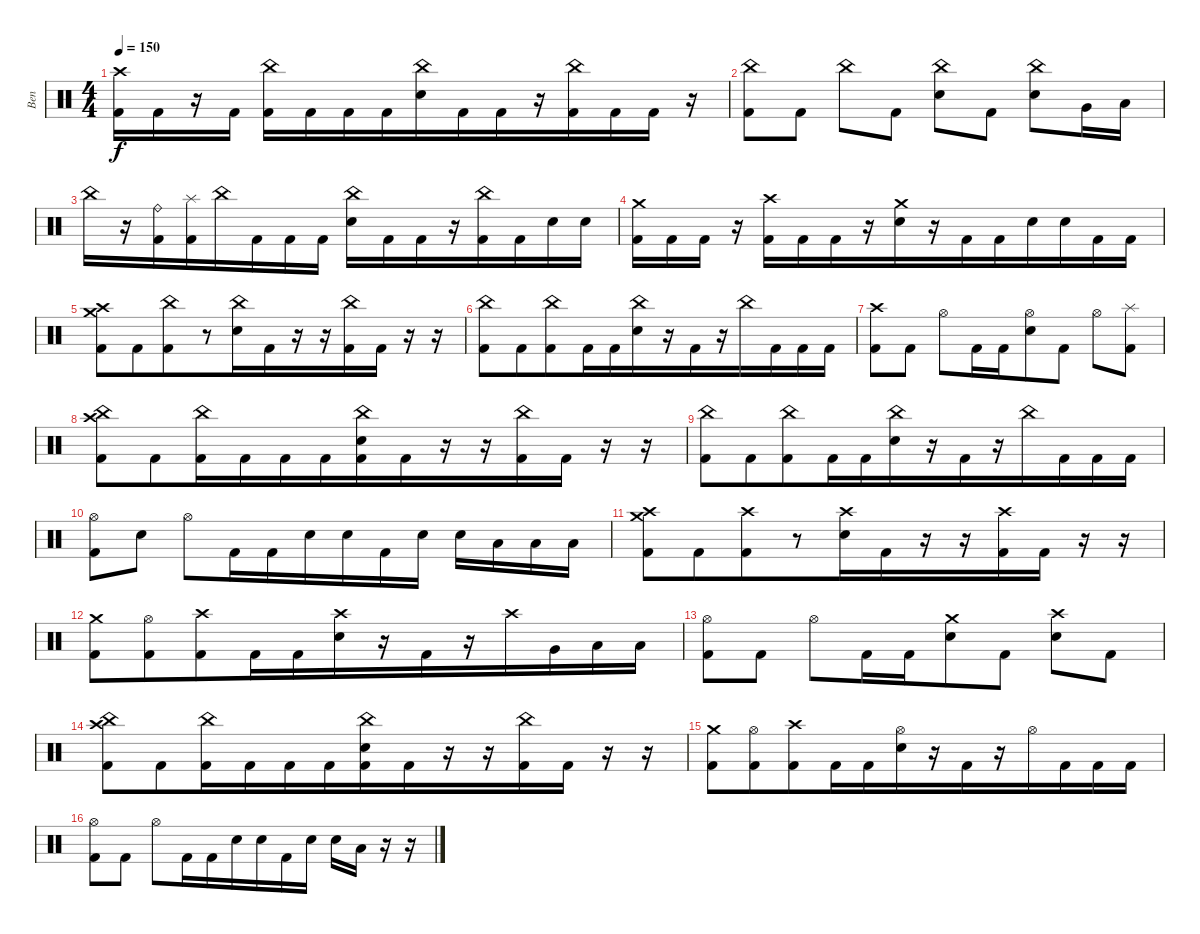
\track ("Ben" "Ben") {instrument percussion}
\staff {score}
\articulation defaults
\ts (4 4)
\tempo 150
\clef neutral
\ks c
("Crash high (hit)" "Kick (hit) 2").16{dy f} "Kick (hit) 2".16 r.16 "Kick (hit) 2".16 ("China (hit)" "Kick (hit) 2").16 "Kick (hit) 2".16{beam merge} "Kick (hit) 2".16 "Kick (hit) 2".16{beam merge} ("China (hit)" "Electric Snare (hit)").16{beam merge} "Kick (hit) 2".16{beam merge} "Kick (hit) 2".16{beam merge} r.16{beam merge} ("China (hit)" "Kick (hit) 2").16{beam merge} "Kick (hit) 2".16{beam merge} "Kick (hit) 2".16{beam merge} r.16 |
("Kick (hit) 2" "China (hit)").8 "Kick (hit) 2".8 "China (hit)".8 "Kick (hit) 2".8 ("Electric Snare (hit)" "China (hit)").8 "Kick (hit) 2".8 ("Electric Snare (hit)" "China (hit)").8{beam merge} "Very Low Tom (hit)".16 "Low Floor Tom (hit)".16 |
"China (hit)".16 r.16 ("Kick (hit) 2" "Ride (bell)").16{beam merge} ("Kick (hit) 2" "Splash (hit)").16{beam merge} "China (hit)".16 "Kick (hit) 2".16 "Kick (hit) 2".16 "Kick (hit) 2".16 ("Electric Snare (hit)" "China (hit)").16 "Kick (hit) 2".16{beam merge} "Kick (hit) 2".16{beam merge} r.16 ("Kick (hit) 2" "China (hit)").16{beam merge} "Kick (hit) 2".16{beam merge} "Electric Snare (hit)".16 "Electric Snare (hit)".16 |
("Crash medium (hit)" "Kick (hit) 2").16{beam merge} "Kick (hit) 2".16 "Kick (hit) 2".16 r.16 ("Crash high (hit)" "Kick (hit) 2").16{beam merge} "Kick (hit) 2".16 "Kick (hit) 2".16{beam merge} r.16 ("Crash medium (hit)" "Electric Snare (hit)").16{beam merge} r.16 "Kick (hit) 2".16 "Kick (hit) 2".16{beam merge} "Electric Snare (hit)".16 "Electric Snare (hit)".16 "Kick (hit) 2".16{beam merge} "Kick (hit) 2".16 |
("Crash high (hit)" "Crash medium (hit)" "Kick (hit) 2").8 "Kick (hit) 2".8{beam merge} ("China (hit)" "Kick (hit) 2").8{beam merge} r.8{beam merge} ("China (hit)" "Electric Snare (hit)").16 "Kick (hit) 2".16{beam merge} r.16 r.16{beam merge} ("China (hit)" "Kick (hit) 2").16{beam merge} "Kick (hit) 2".16{beam merge} r.16 r.16 |
("Kick (hit) 2" "China (hit)").8{beam merge} "Kick (hit) 2".8{beam merge} ("Kick (hit) 2" "China (hit)").8{beam merge} "Kick (hit) 2".16 "Kick (hit) 2".16{beam merge} ("Electric Snare (hit)" "China (hit)").16 r.16{beam merge} "Kick (hit) 2".16{beam merge} r.16{beam merge} "China (hit)".16 "Kick (hit) 2".16{beam merge} "Kick (hit) 2".16{beam merge} "Kick (hit) 2".16 |
("Crash high (hit)" "Kick (hit) 2").8 "Kick (hit) 2".8 "Hi-Hat (open)".8{beam merge} "Kick (hit) 2".16 "Kick (hit) 2".16{beam merge} ("Hi-Hat (open)" "Electric Snare (hit)").8 "Kick (hit) 2".8 "Hi-Hat (open)".8{beam merge} ("Splash (hit)" "Kick (hit) 2").8 |
("China (hit)" "Crash high (hit)" "Kick (hit) 2").8 "Kick (hit) 2".8{beam merge} ("China (hit)" "Kick (hit) 2").16{beam merge} "Kick (hit) 2".16{beam merge} "Kick (hit) 2".16{beam merge} "Kick (hit) 2".16{beam merge} ("China (hit)" "Kick (hit) 2" "Electric Snare (hit)").16 "Kick (hit) 2".16{beam merge} r.16 r.16{beam merge} ("China (hit)" "Kick (hit) 2").16{beam merge} "Kick (hit) 2".16{beam merge} r.16 r.16 |
("Kick (hit) 2" "China (hit)").8{beam merge} "Kick (hit) 2".8{beam merge} ("Kick (hit) 2" "China (hit)").8{beam merge} "Kick (hit) 2".16 "Kick (hit) 2".16{beam merge} ("Electric Snare (hit)" "China (hit)").16 r.16{beam merge} "Kick (hit) 2".16{beam merge} r.16{beam merge} "China (hit)".16 "Kick (hit) 2".16{beam merge} "Kick (hit) 2".16{beam merge} "Kick (hit) 2".16 |
("Hi-Hat (open)" "Kick (hit) 2").8 "Electric Snare (hit)".8 "Hi-Hat (open)".8{beam merge} "Kick (hit) 2".16 "Kick (hit) 2".16{beam merge} "Electric Snare (hit)".16 "Electric Snare (hit)".16 "Kick (hit) 2".16{beam merge} "Electric Snare (hit)".16 "Electric Snare (hit)".16 "Low Tom (hit)".16{beam merge} "Low Tom (hit)".16{beam merge} "Low Floor Tom (hit)".16 |
("Crash high (hit)" "Crash medium (hit)" "Kick (hit) 2").8 "Kick (hit) 2".8{beam merge} ("Crash high (hit)" "Kick (hit) 2").8{beam merge} r.8{beam merge} ("Crash high (hit)" "Electric Snare (hit)").16 "Kick (hit) 2".16{beam merge} r.16 r.16{beam merge} ("Crash high (hit)" "Kick (hit) 2").16{beam merge} "Kick (hit) 2".16{beam merge} r.16 r.16 |
("Kick (hit) 2" "Crash medium (hit)").8{beam merge} ("Kick (hit) 2" "Hi-Hat (open)").8{beam merge} ("Kick (hit) 2" "Crash high (hit)").8{beam merge} "Kick (hit) 2".16 "Kick (hit) 2".16{beam merge} ("Electric Snare (hit)" "Crash high (hit)").16 r.16{beam merge} "Kick (hit) 2".16{beam merge} r.16{beam merge} "Crash high (hit)".16 "Very Low Tom (hit)".16{beam merge} "Low Floor Tom (hit)".16{beam merge} "Low Floor Tom (hit)".16 |
("Hi-Hat (open)" "Kick (hit) 2").8 "Kick (hit) 2".8 "Hi-Hat (open)".8{beam merge} "Kick (hit) 2".16 "Kick (hit) 2".16{beam merge} ("Crash medium (hit)" "Electric Snare (hit)").8 "Kick (hit) 2".8 ("Electric Snare (hit)" "Crash high (hit)").8{beam merge} "Kick (hit) 2".8 |
("China (hit)" "Crash high (hit)" "Kick (hit) 2").8 "Kick (hit) 2".8{beam merge} ("China (hit)" "Kick (hit) 2").16{beam merge} "Kick (hit) 2".16{beam merge} "Kick (hit) 2".16{beam merge} "Kick (hit) 2".16{beam merge} ("China (hit)" "Kick (hit) 2" "Electric Snare (hit)").16 "Kick (hit) 2".16{beam merge} r.16 r.16{beam merge} ("China (hit)" "Kick (hit) 2").16{beam merge} "Kick (hit) 2".16{beam merge} r.16 r.16 |
("Kick (hit) 2" "Crash medium (hit)").8{beam merge} ("Kick (hit) 2" "Hi-Hat (open)").8{beam merge} ("Kick (hit) 2" "Crash high (hit)").8{beam merge} "Kick (hit) 2".16 "Kick (hit) 2".16{beam merge} ("Electric Snare (hit)" "Hi-Hat (open)").16 r.16{beam merge} "Kick (hit) 2".16{beam merge} r.16{beam merge} "Hi-Hat (open)".16 "Kick (hit) 2".16{beam merge} "Kick (hit) 2".16{beam merge} "Kick (hit) 2".16 |
("Hi-Hat (open)" "Kick (hit) 2").8 "Kick (hit) 2".8 "Hi-Hat (open)".8{beam merge} "Kick (hit) 2".16 "Kick (hit) 2".16{beam merge} "Electric Snare (hit)".16 "Electric Snare (hit)".16 "Kick (hit) 2".16{beam merge} "Electric Snare (hit)".16 "Electric Snare (hit)".16 "Low Tom (hit)".16{beam merge} r.16{beam merge} r.16
